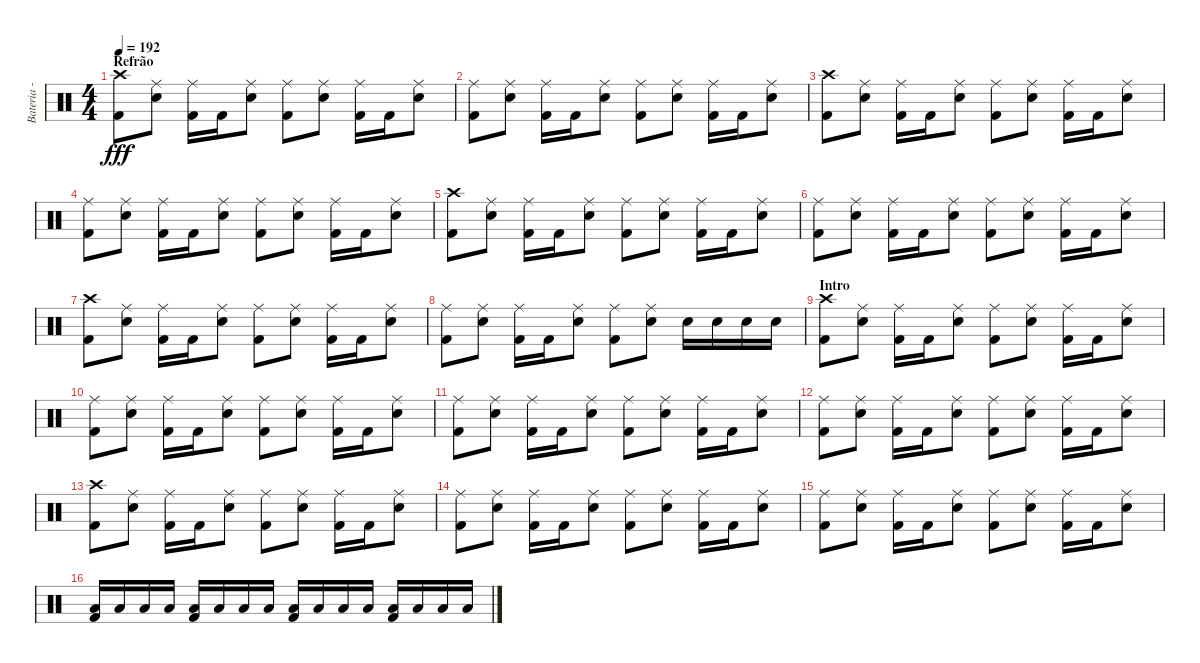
\track ("Bateria - Larzon" "Bateria - ") {instrument percussion}
\staff {score}
\articulation defaults
\ts (4 4)
\section ("" "Refrão")
\tempo 192
\clef neutral
\ks c
("Kick (hit) 2" "Crash high (hit)").8{dy fff} ("Electric Snare (hit)" "Ride (middle)").8 ("Kick (hit) 2" "Ride (middle)").16 "Kick (hit) 2".16 ("Electric Snare (hit)" "Ride (middle)").8 ("Kick (hit) 2" "Ride (middle)").8 ("Electric Snare (hit)" "Ride (middle)").8 ("Kick (hit) 2" "Ride (middle)").16 "Kick (hit) 2".16 ("Electric Snare (hit)" "Ride (middle)").8 |
("Kick (hit) 2" "Ride (middle)").8 ("Electric Snare (hit)" "Ride (middle)").8 ("Kick (hit) 2" "Ride (middle)").16 "Kick (hit) 2".16 ("Electric Snare (hit)" "Ride (middle)").8 ("Kick (hit) 2" "Ride (middle)").8 ("Electric Snare (hit)" "Ride (middle)").8 ("Kick (hit) 2" "Ride (middle)").16 "Kick (hit) 2".16 ("Electric Snare (hit)" "Ride (middle)").8 |
("Kick (hit) 2" "Crash high (hit)").8 ("Electric Snare (hit)" "Ride (middle)").8 ("Kick (hit) 2" "Ride (middle)").16 "Kick (hit) 2".16 ("Electric Snare (hit)" "Ride (middle)").8 ("Kick (hit) 2" "Ride (middle)").8 ("Electric Snare (hit)" "Ride (middle)").8 ("Kick (hit) 2" "Ride (middle)").16 "Kick (hit) 2".16 ("Electric Snare (hit)" "Ride (middle)").8 |
("Kick (hit) 2" "Ride (middle)").8 ("Electric Snare (hit)" "Ride (middle)").8 ("Kick (hit) 2" "Ride (middle)").16 "Kick (hit) 2".16 ("Electric Snare (hit)" "Ride (middle)").8 ("Kick (hit) 2" "Ride (middle)").8 ("Electric Snare (hit)" "Ride (middle)").8 ("Kick (hit) 2" "Ride (middle)").16 "Kick (hit) 2".16 ("Electric Snare (hit)" "Ride (middle)").8 |
("Kick (hit) 2" "Crash high (hit)").8 ("Electric Snare (hit)" "Ride (middle)").8 ("Kick (hit) 2" "Ride (middle)").16 "Kick (hit) 2".16 ("Electric Snare (hit)" "Ride (middle)").8 ("Kick (hit) 2" "Ride (middle)").8 ("Electric Snare (hit)" "Ride (middle)").8 ("Kick (hit) 2" "Ride (middle)").16 "Kick (hit) 2".16 ("Electric Snare (hit)" "Ride (middle)").8 |
("Kick (hit) 2" "Ride (middle)").8 ("Electric Snare (hit)" "Ride (middle)").8 ("Kick (hit) 2" "Ride (middle)").16 "Kick (hit) 2".16 ("Electric Snare (hit)" "Ride (middle)").8 ("Kick (hit) 2" "Ride (middle)").8 ("Electric Snare (hit)" "Ride (middle)").8 ("Kick (hit) 2" "Ride (middle)").16 "Kick (hit) 2".16 ("Electric Snare (hit)" "Ride (middle)").8 |
("Kick (hit) 2" "Crash high (hit)").8 ("Electric Snare (hit)" "Ride (middle)").8 ("Kick (hit) 2" "Ride (middle)").16 "Kick (hit) 2".16 ("Electric Snare (hit)" "Ride (middle)").8 ("Kick (hit) 2" "Ride (middle)").8 ("Electric Snare (hit)" "Ride (middle)").8 ("Kick (hit) 2" "Ride (middle)").16 "Kick (hit) 2".16 ("Electric Snare (hit)" "Ride (middle)").8 |
("Kick (hit) 2" "Ride (middle)").8 ("Electric Snare (hit)" "Ride (middle)").8 ("Kick (hit) 2" "Ride (middle)").16 "Kick (hit) 2".16 ("Electric Snare (hit)" "Ride (middle)").8 ("Kick (hit) 2" "Ride (middle)").8 ("Electric Snare (hit)" "Ride (middle)").8 "Electric Snare (hit)".16 "Electric Snare (hit)".16 "Electric Snare (hit)".16 "Electric Snare (hit)".16 |
\section ("" "Intro")
("Kick (hit) 2" "Crash high (hit)").8 ("Electric Snare (hit)" "Ride (middle)").8 ("Ride (middle)" "Kick (hit) 2").16 "Kick (hit) 2".16 ("Electric Snare (hit)" "Ride (middle)").8 ("Kick (hit) 2" "Ride (middle)").8 ("Electric Snare (hit)" "Ride (middle)").8 ("Kick (hit) 2" "Ride (middle)").16 "Kick (hit) 2".16 ("Electric Snare (hit)" "Ride (middle)").8 |
("Kick (hit) 2" "Ride (middle)").8 ("Electric Snare (hit)" "Ride (middle)").8 ("Kick (hit) 2" "Ride (middle)").16 "Kick (hit) 2".16 ("Electric Snare (hit)" "Ride (middle)").8 ("Kick (hit) 2" "Ride (middle)").8 ("Electric Snare (hit)" "Ride (middle)").8 ("Kick (hit) 2" "Ride (middle)").16 "Kick (hit) 2".16 ("Electric Snare (hit)" "Ride (middle)").8 |
("Kick (hit) 2" "Ride (middle)").8 ("Electric Snare (hit)" "Ride (middle)").8 ("Kick (hit) 2" "Ride (middle)").16 "Kick (hit) 2".16 ("Electric Snare (hit)" "Ride (middle)").8 ("Kick (hit) 2" "Ride (middle)").8 ("Electric Snare (hit)" "Ride (middle)").8 ("Kick (hit) 2" "Ride (middle)").16 "Kick (hit) 2".16 ("Electric Snare (hit)" "Ride (middle)").8 |
("Kick (hit) 2" "Ride (middle)").8 ("Electric Snare (hit)" "Ride (middle)").8 ("Kick (hit) 2" "Ride (middle)").16 "Kick (hit) 2".16 ("Electric Snare (hit)" "Ride (middle)").8 ("Kick (hit) 2" "Ride (middle)").8 ("Electric Snare (hit)" "Ride (middle)").8 ("Kick (hit) 2" "Ride (middle)").16 "Kick (hit) 2".16 ("Electric Snare (hit)" "Ride (middle)").8 |
("Kick (hit) 2" "Crash high (hit)").8 ("Electric Snare (hit)" "Ride (middle)").8 ("Ride (middle)" "Kick (hit) 2").16 "Kick (hit) 2".16 ("Electric Snare (hit)" "Ride (middle)").8 ("Kick (hit) 2" "Ride (middle)").8 ("Electric Snare (hit)" "Ride (middle)").8 ("Kick (hit) 2" "Ride (middle)").16 "Kick (hit) 2".16 ("Electric Snare (hit)" "Ride (middle)").8 |
("Kick (hit) 2" "Ride (middle)").8 ("Electric Snare (hit)" "Ride (middle)").8 ("Kick (hit) 2" "Ride (middle)").16 "Kick (hit) 2".16 ("Electric Snare (hit)" "Ride (middle)").8 ("Kick (hit) 2" "Ride (middle)").8 ("Electric Snare (hit)" "Ride (middle)").8 ("Kick (hit) 2" "Ride (middle)").16 "Kick (hit) 2".16 ("Electric Snare (hit)" "Ride (middle)").8 |
("Kick (hit) 2" "Ride (middle)").8 ("Electric Snare (hit)" "Ride (middle)").8 ("Kick (hit) 2" "Ride (middle)").16 "Kick (hit) 2".16 ("Electric Snare (hit)" "Ride (middle)").8 ("Kick (hit) 2" "Ride (middle)").8 ("Electric Snare (hit)" "Ride (middle)").8 ("Kick (hit) 2" "Ride (middle)").16 "Kick (hit) 2".16 ("Electric Snare (hit)" "Ride (middle)").8 |
("Kick (hit) 2" "Low Tom (hit)").16 "Low Tom (hit)".16 "Low Tom (hit)".16 "Low Tom (hit)".16 ("Kick (hit) 2" "Low Tom (hit)").16 "Low Tom (hit)".16 "Low Tom (hit)".16 "Low Tom (hit)".16 ("Kick (hit) 2" "Low Tom (hit)").16 "Low Tom (hit)".16 "Low Tom (hit)".16 "Low Tom (hit)".16 ("Kick (hit) 2" "Low Tom (hit)").16 "Low Tom (hit)".16 "Low Tom (hit)".16 "Low Tom (hit)".16
